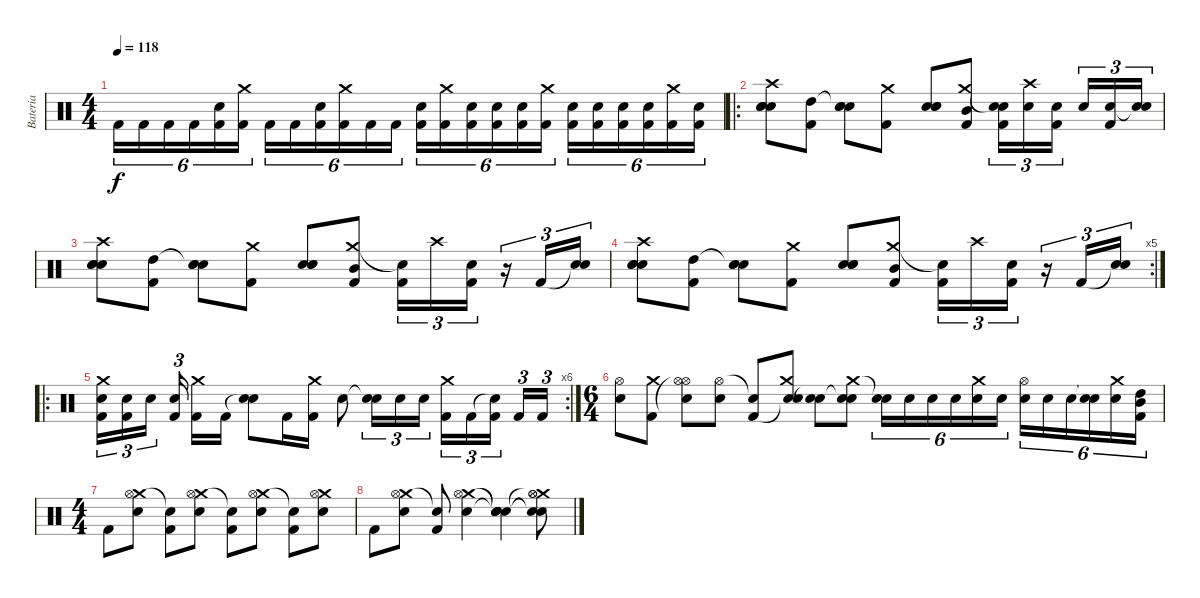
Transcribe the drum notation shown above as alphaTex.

\track ("Bateria" "Bateria") {instrument percussion}
\staff {score}
\articulation defaults
\ts (4 4)
\tempo 118
\clef neutral
\ks c "Kick (hit) 2".16{tu (6 4) dy f} "Kick (hit) 2".16{tu (6 4)} "Kick (hit) 2".16{tu (6 4)} "Kick (hit) 2".16{tu (6 4)}
("Snare (hit) 2" "Kick (hit) 2").16{tu (6 4)} ("Crash medium (hit)" "Kick (hit) 2").16{tu (6 4)} "Kick (hit) 2".16{tu (6 4)} "Kick (hit) 2".16{tu (6 4)} ("Snare (hit) 2" "Kick (hit) 2").16{tu (6 4)} ("Crash medium (hit)" "Kick (hit) 2").16{tu (6 4)} "Kick (hit) 2".16{tu (6 4)} "Kick (hit) 2".16{tu (6 4)} ("Snare (hit) 2" "Kick (hit) 2").16{tu (6 4)} ("Crash medium (hit)" "Kick (hit) 2").16{tu (6 4)} ("Snare (hit) 2" "Kick (hit) 2").16{tu (6 4)} ("Snare (hit) 2" "Kick (hit) 2").16{tu (6 4)} ("Snare (hit) 2" "Kick (hit) 2").16{tu (6 4)} ("Crash medium (hit)" "Kick (hit) 2").16{tu (6 4)} ("Snare (hit) 2" "Kick (hit) 2").16{tu (6 4)} ("Snare (hit) 2" "Kick (hit) 2").16{tu (6 4)} ("Snare (hit) 2" "Kick (hit) 2").16{tu (6 4)} ("Snare (hit) 2" "Kick (hit) 2").16{tu (6 4)} ("Crash medium (hit)" "Kick (hit) 2").16{tu (6 4)} ("Snare (hit) 2" "Kick (hit) 2").16{tu (6 4)} |
\ro
("Snare (hit) 2" "Crash high (hit)" "Snare (hit) 2" "Snare (hit) 2").8{bd 480} ("High Tom (hit)" "Kick (hit) 2").8 ("Snare (hit)"{t} "Snare (hit) 2" "Snare (hit) 2").8{bd 480} ("Crash medium (hit)" "Kick (hit) 2").8 ("Snare (hit) 2" "Snare (hit) 2" "Snare (hit) 2").8{bd 480} ("Crash medium (hit)" "Mid Tom (hit)" "Kick (hit) 2").8 ("Snare (hit)"{t} "Snare (hit) 2" "Kick (hit) 2").16{tu (3 2)} ("Crash high (hit)" "Snare (hit) 2").16{tu (3 2)} ("Snare (hit) 2" "Kick (hit) 2").16{tu (3 2)} "Snare (hit) 2".16{tu (3 2)} ("Snare (hit) 2" "Kick (hit) 2").16{tu (3 2)} ("Snare (hit)"{t} "Snare (hit) 2").16{tu (3 2)} |
("Snare (hit) 2" "Crash high (hit)" "Snare (hit) 2" "Snare (hit) 2").8{bd 480} ("High Tom (hit)" "Kick (hit) 2").8 ("Snare (hit)"{t} "Snare (hit) 2" "Snare (hit) 2").8{bd 480} ("Crash medium (hit)" "Kick (hit) 2").8 ("Snare (hit) 2" "Snare (hit) 2" "Snare (hit) 2").8{bd 480} ("Crash medium (hit)" "Mid Tom (hit)" "Kick (hit) 2").8 ("Snare (hit)"{t} "Kick (hit) 2").16{tu (3 2)} "Crash high (hit)".16{tu (3 2)} ("Snare (hit) 2" "Kick (hit) 2").16{tu (3 2)} r.16{tu (3 2)} "Kick (hit) 2".16{tu (3 2)} ("Snare (hit)"{t} "Snare (hit) 2").16{tu (3 2)} |
\rc 5
("Snare (hit) 2" "Crash high (hit)" "Snare (hit) 2" "Snare (hit) 2").8{bd 480} ("High Tom (hit)" "Kick (hit) 2").8 ("Snare (hit)"{t} "Snare (hit) 2" "Snare (hit) 2").8{bd 480} ("Crash medium (hit)" "Kick (hit) 2").8 ("Snare (hit) 2" "Snare (hit) 2" "Snare (hit) 2").8{bd 480} ("Crash medium (hit)" "Mid Tom (hit)" "Kick (hit) 2").8 ("Snare (hit)"{t} "Kick (hit) 2").16{tu (3 2)} "Crash high (hit)".16{tu (3 2)} ("Snare (hit) 2" "Kick (hit) 2").16{tu (3 2)} r.16{tu (3 2)} "Kick (hit) 2".16{tu (3 2)} ("Snare (hit)"{t} "Snare (hit) 2").16{tu (3 2)} |
\ro
\rc 6
("Crash medium (hit)" "Snare (hit) 2" "Kick (hit) 2").16{tu (3 2)} ("Snare (hit) 2" "Kick (hit) 2").16{tu (3 2)} "Snare (hit) 2".16{tu (3 2)} ("Snare (hit) 2" "Kick (hit) 2").16{tu (3 2)} ("Crash medium (hit)" "Kick (hit) 2").16 "Kick (hit) 2".16 ("Snare (hit)"{t} "Snare (hit) 2").8 "Kick (hit) 2".16 ("Crash medium (hit)" "Kick (hit) 2").16 "Snare (hit) 2".8 ("Snare (hit)"{t} "Snare (hit) 2").16{tu (3 2)} "Snare (hit) 2".16{tu (3 2)} "Snare (hit) 2".16{tu (3 2)} ("Crash medium (hit)" "Kick (hit) 2").16{tu (3 2)} "Kick (hit) 2".16{tu (3 2)} ("Snare (hit)"{t} "Kick (hit) 2").16{tu (3 2)} "Kick (hit) 2".16{tu (3 2)} "Kick (hit) 2".16{tu (3 2)} |
\ts (6 4)
("Hi-Hat (open)" "Electric Snare (hit)").8 ("Crash medium (hit)" "Kick (hit) 2").8 ("Hi-Hat (open)" "Hi-Hat (open)"{t} "Electric Snare (hit)").8 ("Hi-Hat (open)" "Electric Snare (hit)").8 ("Snare (hit)"{t} "Kick (hit) 2").8 ("Crash medium (hit)" "Snare (hit)"{t} "Electric Snare (hit)").8 ("Snare (hit)"{t} "Electric Snare (hit)").8 ("Crash medium (hit)" "Snare (hit)"{t} "Electric Snare (hit)").8 ("Snare (hit)"{t} "Electric Snare (hit)").16{tu (6 4)} "Electric Snare (hit)".16{tu (6 4)} "Electric Snare (hit)".16{tu (6 4)} "Electric Snare (hit)".16{tu (6 4)} ("Crash medium (hit)" "Snare (hit) 2").16{tu (6 4)} "Snare (hit) 2".16{tu (6 4)} ("Hi-Hat (open)" "Snare (hit) 2").16{tu (6 4)} "Snare (hit) 2".16{tu (6 4)} "Snare (hit) 2".16{tu (6 4)} ("Snare (hit)"{t} "Snare (hit) 2").16{tu (6 4)} ("Crash medium (hit)" "Snare (hit) 2").16{tu (6 4)} ("High Tom (hit)" "Mid Tom (hit)" "Kick (hit) 2").16{tu (6 4) bd 480} |
\ts (4 4)
"Kick (hit) 2".8 ("Crash medium (hit)" "Hi-Hat (open)" "Snare (hit) 2").8 ("Snare (hit)"{t} "Kick (hit) 2").8 ("Crash medium (hit)" "Hi-Hat (open)" "Snare (hit) 2").8 ("Snare (hit)"{t} "Kick (hit) 2").8 ("Crash medium (hit)" "Hi-Hat (open)" "Snare (hit) 2").8 ("Snare (hit)"{t} "Kick (hit) 2").8 ("Crash medium (hit)" "Hi-Hat (open)" "Snare (hit) 2").8 |
"Kick (hit) 2".8 ("Crash medium (hit)" "Hi-Hat (open)" "Snare (hit) 2").8 ("Snare (hit)"{t} "Kick (hit) 2").8 ("Crash medium (hit)" "Hi-Hat (open)" "Snare (hit) 2").4 ("Snare (hit)"{t} "Snare (hit)"{t} "Snare (hit)"{t} "Snare (hit)").4 ("Crash medium (hit)" "Snare (hit)"{t} "Hi-Hat (open)"{t} "Snare (hit)"{t} "Hi-Hat (open)").8
